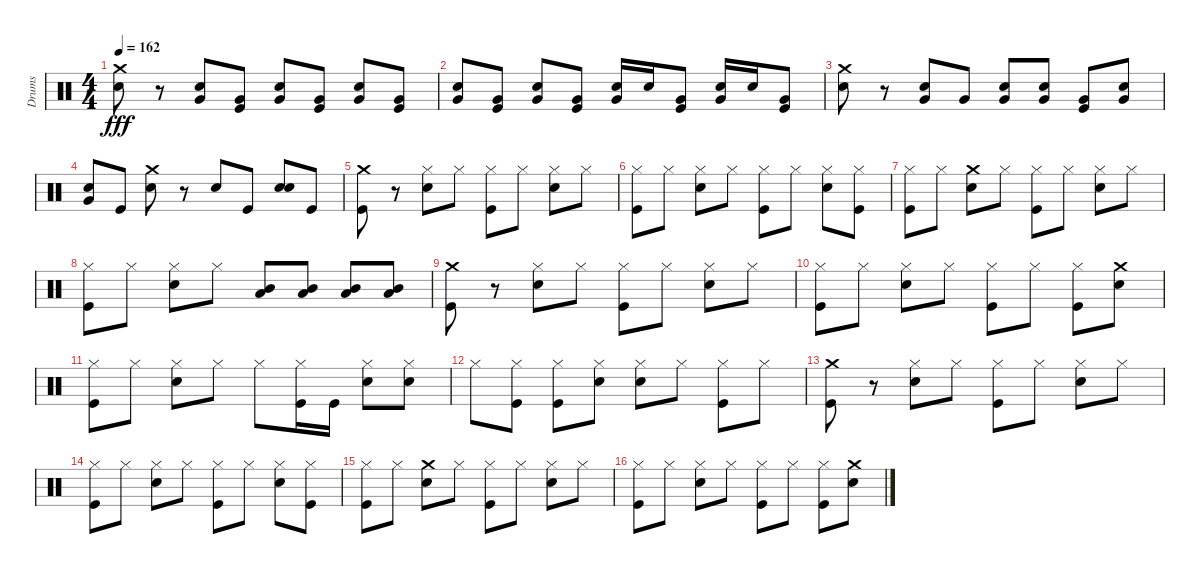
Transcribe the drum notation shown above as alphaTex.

\track ("Drums" "Drums") {instrument percussion}
\staff {score}
\articulation defaults
\ts (4 4)
\tempo 162
\clef neutral
\ks c
("Crash medium (hit)" "Snare (hit) 2").8{dy fff} r.8 ("Snare (hit) 2" "Very Low Tom (hit)").8 ("Kick (hit)" "Very Low Tom (hit)").8 ("Snare (hit) 2" "Very Low Tom (hit)").8 ("Kick (hit)" "Very Low Tom (hit)").8 ("Snare (hit) 2" "Very Low Tom (hit)").8 ("Kick (hit)" "Very Low Tom (hit)").8 |
("Very Low Tom (hit)" "Snare (hit) 2").8 ("Kick (hit)" "Very Low Tom (hit)").8 ("Very Low Tom (hit)" "Snare (hit) 2").8 ("Kick (hit)" "Very Low Tom (hit)").8 ("Snare (hit) 2" "Very Low Tom (hit)").16 "Snare (hit) 2".16 ("Kick (hit)" "Very Low Tom (hit)").8 ("Snare (hit) 2" "Very Low Tom (hit)").16 "Snare (hit) 2".16 ("Kick (hit)" "Very Low Tom (hit)").8 |
("Crash medium (hit)" "Snare (hit) 2").8 r.8 ("Very Low Tom (hit)" "Snare (hit) 2").8 "Very Low Tom (hit)".8 ("Very Low Tom (hit)" "Snare (hit) 2").8 ("Snare (hit) 2" "Very Low Tom (hit)").8 ("Very Low Tom (hit)" "Kick (hit)").8 ("Snare (hit) 2" "Very Low Tom (hit)").8 |
("Very Low Tom (hit)" "Snare (hit) 2").8 "Kick (hit)".8 ("Crash medium (hit)" "Snare (hit) 2").8 r.8 "Snare (hit) 2".8 "Kick (hit)".8 ("Snare (hit) 2" "Snare (hit) 2").8 "Kick (hit)".8 |
("Crash medium (hit)" "Kick (hit)").8 r.8 ("Hi-Hat (closed)" "Snare (hit) 2").8 "Hi-Hat (closed)".8 ("Kick (hit)" "Hi-Hat (closed)").8 "Hi-Hat (closed)".8 ("Snare (hit) 2" "Hi-Hat (closed)").8 "Hi-Hat (closed)".8 |
("Hi-Hat (closed)" "Kick (hit)").8 "Hi-Hat (closed)".8 ("Snare (hit) 2" "Hi-Hat (closed)").8 "Hi-Hat (closed)".8 ("Hi-Hat (closed)" "Kick (hit)").8 "Hi-Hat (closed)".8 ("Snare (hit) 2" "Hi-Hat (closed)").8 ("Kick (hit)" "Hi-Hat (closed)").8 |
("Hi-Hat (closed)" "Kick (hit)").8 "Hi-Hat (closed)".8 ("Crash medium (hit)" "Snare (hit) 2").8 "Hi-Hat (closed)".8 ("Hi-Hat (closed)" "Kick (hit)").8 "Hi-Hat (closed)".8 ("Snare (hit) 2" "Hi-Hat (closed)").8 "Hi-Hat (closed)".8 |
("Hi-Hat (closed)" "Kick (hit)").8 "Hi-Hat (closed)".8 ("Snare (hit) 2" "Hi-Hat (closed)").8 "Hi-Hat (closed)".8 ("Mid Tom (hit)" "Low Tom (hit)").8 ("Mid Tom (hit)" "Low Tom (hit)").8 ("Mid Tom (hit)" "Low Tom (hit)").8 ("Mid Tom (hit)" "Low Tom (hit)").8 |
("Crash medium (hit)" "Kick (hit)").8 r.8 ("Hi-Hat (closed)" "Snare (hit) 2").8 "Hi-Hat (closed)".8 ("Kick (hit)" "Hi-Hat (closed)").8 "Hi-Hat (closed)".8 ("Snare (hit) 2" "Hi-Hat (closed)").8 "Hi-Hat (closed)".8 |
("Hi-Hat (closed)" "Kick (hit)").8 "Hi-Hat (closed)".8 ("Snare (hit) 2" "Hi-Hat (closed)").8 "Hi-Hat (closed)".8 ("Hi-Hat (closed)" "Kick (hit)").8 "Hi-Hat (closed)".8 ("Kick (hit)" "Hi-Hat (closed)").8 ("Crash medium (hit)" "Snare (hit) 2").8 |
("Hi-Hat (closed)" "Kick (hit)").8 "Hi-Hat (closed)".8 ("Snare (hit) 2" "Hi-Hat (closed)").8 "Hi-Hat (closed)".8 "Hi-Hat (closed)".8 ("Kick (hit)" "Hi-Hat (closed)").16 "Kick (hit)".16 ("Snare (hit) 2" "Hi-Hat (closed)").8 ("Snare (hit) 2" "Hi-Hat (closed)").8 |
"Hi-Hat (closed)".8 ("Hi-Hat (closed)" "Kick (hit)").8 ("Hi-Hat (closed)" "Kick (hit)").8 ("Snare (hit) 2" "Hi-Hat (closed)").8 ("Snare (hit) 2" "Hi-Hat (closed)").8 "Hi-Hat (closed)".8 ("Kick (hit)" "Hi-Hat (closed)").8 "Hi-Hat (closed)".8 |
("Crash medium (hit)" "Kick (hit)").8 r.8 ("Hi-Hat (closed)" "Snare (hit) 2").8 "Hi-Hat (closed)".8 ("Kick (hit)" "Hi-Hat (closed)").8 "Hi-Hat (closed)".8 ("Snare (hit) 2" "Hi-Hat (closed)").8 "Hi-Hat (closed)".8 |
("Hi-Hat (closed)" "Kick (hit)").8 "Hi-Hat (closed)".8 ("Snare (hit) 2" "Hi-Hat (closed)").8 "Hi-Hat (closed)".8 ("Kick (hit)" "Hi-Hat (closed)").8 "Hi-Hat (closed)".8 ("Snare (hit) 2" "Hi-Hat (closed)").8 ("Kick (hit)" "Hi-Hat (closed)").8 |
("Hi-Hat (closed)" "Kick (hit)").8 "Hi-Hat (closed)".8 ("Crash medium (hit)" "Snare (hit) 2").8 "Hi-Hat (closed)".8 ("Hi-Hat (closed)" "Kick (hit)").8 "Hi-Hat (closed)".8 ("Snare (hit) 2" "Hi-Hat (closed)").8 "Hi-Hat (closed)".8 |
("Hi-Hat (closed)" "Kick (hit)").8 "Hi-Hat (closed)".8 ("Snare (hit) 2" "Hi-Hat (closed)").8 "Hi-Hat (closed)".8 ("Hi-Hat (closed)" "Kick (hit)").8 "Hi-Hat (closed)".8 ("Kick (hit)" "Hi-Hat (closed)").8 ("Crash medium (hit)" "Snare (hit) 2").8
